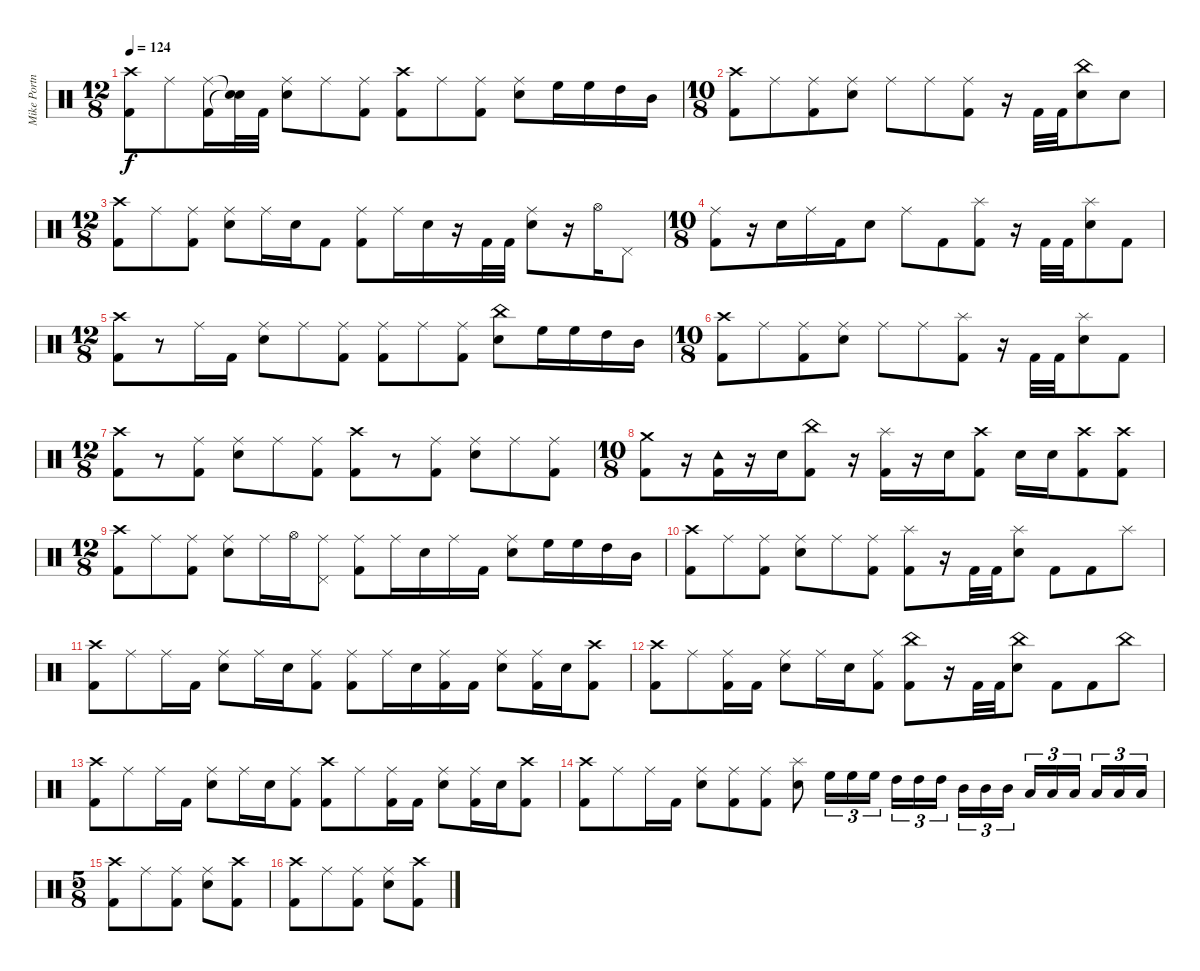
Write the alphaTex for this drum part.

\track ("Mike Portnoy - Drums" "Mike Portn") {instrument percussion}
\staff {score}
\articulation defaults
\ts (12 8)
\tempo 124
\clef neutral
\ks c
("Crash high (hit)" "Kick (hit) 2").8{dy f} "Ride (middle)".8 ("Ride (middle)" "Kick (hit) 2").16 ("Snare (hit)"{t} "Snare (hit)"{t}).32 "Kick (hit) 2".32 ("Ride (middle)" "Electric Snare (hit)").8 "Ride (middle)".8 ("Ride (middle)" "Kick (hit) 2").8 ("Crash high (hit)" "Kick (hit) 2").8 "Ride (middle)".8 ("Ride (middle)" "Kick (hit) 2").8 ("Ride (middle)" "Electric Snare (hit)").8 "High Floor Tom (hit)".16 "High Floor Tom (hit)".16 "High Tom (hit)".16 "Mid Tom (hit)".16 |
\ts (10 8)
("Crash high (hit)" "Kick (hit) 2").8 "Ride (middle)".8 ("Ride (middle)" "Kick (hit) 2").8 ("Ride (middle)" "Electric Snare (hit)").8 "Ride (middle)".8 "Ride (middle)".8 ("Ride (middle)" "Kick (hit) 2").8 r.16 "Kick (hit) 2".32 "Kick (hit) 2".32 ("China (hit)" "Electric Snare (hit)").8 "Electric Snare (hit)".8 |
\ts (12 8)
("Crash high (hit)" "Kick (hit) 2").8 "Ride (middle)".8 ("Ride (middle)" "Kick (hit) 2").8 ("Ride (middle)" "Electric Snare (hit)").8 "Ride (middle)".16 "Electric Snare (hit)".16 "Kick (hit) 2".8 ("Ride (middle)" "Kick (hit) 2").8 "Ride (middle)".16 "Electric Snare (hit)".16 r.16 "Kick (hit) 2".32 "Kick (hit) 2".32 ("Ride (middle)" "Electric Snare (hit)").8 r.16 "Hi-Hat (open)".16 "Pedal Hi-Hat (hit)".8 |
\ts (10 8)
("Ride (middle)" "Kick (hit) 2").8 r.16 "Electric Snare (hit)".16 "Ride (middle)".16 "Kick (hit) 2".16 "Electric Snare (hit)".8 "Ride (middle)".8 "Kick (hit) 2".8 ("Splash (hit)" "Kick (hit) 2").8 r.16 "Kick (hit) 2".32 "Kick (hit) 2".32 ("Splash (hit)" "Electric Snare (hit)").8 "Kick (hit) 2".8 |
\ts (12 8)
("Crash high (hit)" "Kick (hit) 2").8 r.8 "Ride (middle)".16 "Kick (hit) 2".16 ("Ride (middle)" "Electric Snare (hit)").8 "Ride (middle)".8 ("Ride (middle)" "Kick (hit) 2").8 ("Ride (middle)" "Kick (hit) 2").8 "Ride (middle)".8 ("Ride (middle)" "Kick (hit) 2").8 ("China (hit)" "Electric Snare (hit)").8 "High Floor Tom (hit)".16 "High Floor Tom (hit)".16 "High Tom (hit)".16 "Mid Tom (hit)".16 |
\ts (10 8)
("Crash high (hit)" "Kick (hit) 2").8 "Ride (middle)".8 ("Ride (middle)" "Kick (hit) 2").8 ("Ride (middle)" "Electric Snare (hit)").8 "Ride (middle)".8 "Ride (middle)".8 ("Splash (hit)" "Kick (hit) 2").8 r.16 "Kick (hit) 2".32 "Kick (hit) 2".32 ("Splash (hit)" "Electric Snare (hit)").8 "Kick (hit) 2".8 |
\ts (12 8)
("Crash high (hit)" "Kick (hit) 2").8 r.8 ("Ride (middle)" "Kick (hit) 2").8 ("Ride (middle)" "Electric Snare (hit)").8 "Ride (middle)".8 ("Ride (middle)" "Kick (hit) 2").8 ("Crash high (hit)" "Kick (hit) 2").8 r.8 ("Ride (middle)" "Kick (hit) 2").8 ("Ride (middle)" "Electric Snare (hit)").8 "Ride (middle)".8 ("Ride (middle)" "Kick (hit) 2").8 |
\ts (10 8)
("Crash medium (hit)" "Kick (hit) 2").8 r.16 ("Tambourine (hit)" "Kick (hit) 2").16 r.16 "Electric Snare (hit)".16 ("China (hit)" "Kick (hit) 2").8 r.16 ("Splash (hit)" "Kick (hit) 2").16 r.16 "Electric Snare (hit)".16 ("Crash high (hit)" "Kick (hit) 2").8 "Electric Snare (hit)".16 "Electric Snare (hit)".16 ("Crash high (hit)" "Kick (hit) 2").8 ("Crash high (hit)" "Kick (hit) 2").8 |
\ts (12 8)
("Crash high (hit)" "Kick (hit) 2").8 "Ride (middle)".8 ("Ride (middle)" "Kick (hit) 2").8 ("Ride (middle)" "Electric Snare (hit)").8 "Ride (middle)".16 "Hi-Hat (open)".16 ("Ride (middle)" "Pedal Hi-Hat (hit)").8 ("Ride (middle)" "Kick (hit) 2").8 "Ride (middle)".16 "Electric Snare (hit)".16 "Ride (middle)".16 "Kick (hit) 2".16 ("Ride (middle)" "Electric Snare (hit)").8 "High Floor Tom (hit)".16 "High Floor Tom (hit)".16 "High Tom (hit)".16 "Mid Tom (hit)".16 |
("Crash high (hit)" "Kick (hit) 2").8 "Ride (middle)".8 ("Ride (middle)" "Kick (hit) 2").8 ("Ride (middle)" "Electric Snare (hit)").8 "Ride (middle)".8 ("Ride (middle)" "Kick (hit) 2").8 ("Splash (hit)" "Kick (hit) 2").8 r.16 "Kick (hit) 2".32 "Kick (hit) 2".32 ("Splash (hit)" "Electric Snare (hit)").8 "Kick (hit) 2".8 "Kick (hit) 2".8 "Splash (hit)".8 |
("Crash high (hit)" "Kick (hit) 2").8 "Ride (middle)".8 "Ride (middle)".16 "Kick (hit) 2".16 ("Ride (middle)" "Electric Snare (hit)").8 "Ride (middle)".16 "Electric Snare (hit)".16 ("Ride (middle)" "Kick (hit) 2").8 ("Ride (middle)" "Kick (hit) 2").8 "Ride (middle)".16 "Electric Snare (hit)".16 ("Ride (middle)" "Kick (hit) 2").16 "Kick (hit) 2".16 ("Ride (middle)" "Electric Snare (hit)").8 ("Ride (middle)" "Kick (hit) 2").16 "Electric Snare (hit)".16 ("Crash high (hit)" "Kick (hit) 2").8 |
("Crash high (hit)" "Kick (hit) 2").8 "Ride (middle)".8 ("Ride (middle)" "Kick (hit) 2").16 "Kick (hit) 2".16 ("Ride (middle)" "Electric Snare (hit)").8 "Ride (middle)".16 "Electric Snare (hit)".16 ("Ride (middle)" "Kick (hit) 2").8 ("China (hit)" "Kick (hit) 2").8 r.16 "Kick (hit) 2".32 "Kick (hit) 2".32 ("China (hit)" "Electric Snare (hit)").8 "Kick (hit) 2".8 "Kick (hit) 2".8 "China (hit)".8 |
("Crash high (hit)" "Kick (hit) 2").8 "Ride (middle)".8 "Ride (middle)".16 "Kick (hit) 2".16 ("Ride (middle)" "Electric Snare (hit)").8 "Ride (middle)".16 "Electric Snare (hit)".16 ("Ride (middle)" "Kick (hit) 2").8 ("Crash high (hit)" "Kick (hit) 2").8 "Ride (middle)".8 ("Ride (middle)" "Kick (hit) 2").16 "Kick (hit) 2".16 ("Ride (middle)" "Electric Snare (hit)").8 ("Ride (middle)" "Kick (hit) 2").16 "Electric Snare (hit)".16 ("Crash high (hit)" "Kick (hit) 2").8 |
("Crash high (hit)" "Kick (hit) 2").8 "Ride (middle)".8 "Ride (middle)".16 "Kick (hit) 2".16 ("Ride (middle)" "Electric Snare (hit)").8 ("Ride (middle)" "Kick (hit) 2").8 ("Ride (middle)" "Kick (hit) 2").8 ("Splash (hit)" "Electric Snare (hit)").8 "High Floor Tom (hit)".16{tu (3 2)} "High Floor Tom (hit)".16{tu (3 2)} "High Floor Tom (hit)".16{tu (3 2)} "High Tom (hit)".16{tu (3 2)} "High Tom (hit)".16{tu (3 2)} "High Tom (hit)".16{tu (3 2)} "Mid Tom (hit)".16{tu (3 2)} "Mid Tom (hit)".16{tu (3 2)} "Mid Tom (hit)".16{tu (3 2)} "Low Tom (hit)".16{tu (3 2)} "Low Tom (hit)".16{tu (3 2)} "Low Tom (hit)".16{tu (3 2)} "Low Floor Tom (hit)".16{tu (3 2)} "Low Floor Tom (hit)".16{tu (3 2)} "Low Floor Tom (hit)".16{tu (3 2)} |
\ts (5 8)
("Crash high (hit)" "Kick (hit) 2").8 "Ride (middle)".8 ("Ride (middle)" "Kick (hit) 2").8 ("Ride (middle)" "Electric Snare (hit)").8 ("Crash high (hit)" "Kick (hit) 2").8 |
("Crash high (hit)" "Kick (hit) 2").8 "Ride (middle)".8 ("Ride (middle)" "Kick (hit) 2").8 ("Ride (middle)" "Electric Snare (hit)").8 ("Crash high (hit)" "Kick (hit) 2").8
